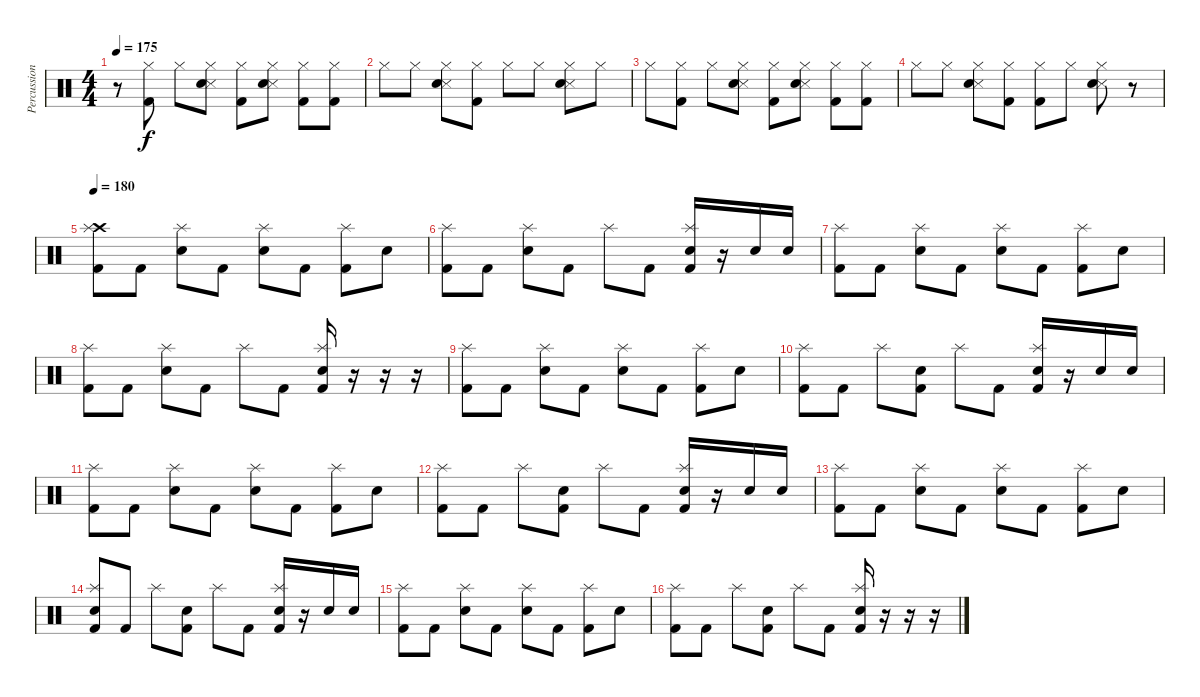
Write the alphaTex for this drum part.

\track ("Percussion" "Percussion") {instrument percussion}
\staff {score}
\articulation defaults
\ts (4 4)
\tempo 175
\clef neutral
\ks c
r.8{dy f} ("Hi-Hat (closed)" "Kick (hit) 2").8 "Hi-Hat (closed)".8 ("Hi-Hat (closed)" "Snare (side stick) 3" "Hand Clap (hit)").8 ("Hi-Hat (closed)" "Kick (hit) 2").8 ("Hi-Hat (closed)" "Snare (side stick) 3" "Hand Clap (hit)").8 ("Hi-Hat (closed)" "Kick (hit) 2").8 ("Hi-Hat (closed)" "Kick (hit) 2").8 |
"Hi-Hat (closed)".8 "Hi-Hat (closed)".8 ("Hi-Hat (closed)" "Snare (side stick) 3" "Hand Clap (hit)").8 ("Hi-Hat (closed)" "Kick (hit) 2").8 "Hi-Hat (closed)".8 "Hi-Hat (closed)".8 ("Hi-Hat (closed)" "Snare (side stick) 3" "Hand Clap (hit)").8 "Hi-Hat (closed)".8 |
"Hi-Hat (closed)".8 ("Hi-Hat (closed)" "Kick (hit) 2").8 "Hi-Hat (closed)".8 ("Hi-Hat (closed)" "Snare (side stick) 3" "Hand Clap (hit)").8 ("Hi-Hat (closed)" "Kick (hit) 2").8 ("Hi-Hat (closed)" "Snare (side stick) 3" "Hand Clap (hit)").8 ("Hi-Hat (closed)" "Kick (hit) 2").8 ("Hi-Hat (closed)" "Kick (hit) 2").8 |
"Hi-Hat (closed)".8 "Hi-Hat (closed)".8 ("Hi-Hat (closed)" "Snare (side stick) 3" "Hand Clap (hit)").8 ("Hi-Hat (closed)" "Kick (hit) 2").8 ("Hi-Hat (closed)" "Kick (hit) 2").8 "Hi-Hat (closed)".8 ("Hi-Hat (closed)" "Snare (side stick) 3" "Hand Clap (hit)").8 r.8 |
\tempo 180
("Crash high (hit)" "Splash (hit)" "Kick (hit) 2").8 "Kick (hit) 2".8 ("Splash (hit)" "Snare (hit) 2").8 "Kick (hit) 2".8 ("Splash (hit)" "Snare (hit) 2").8 "Kick (hit) 2".8 ("Splash (hit)" "Kick (hit) 2").8 "Snare (hit) 2".8 |
("Splash (hit)" "Kick (hit) 2").8 "Kick (hit) 2".8 ("Splash (hit)" "Snare (hit) 2").8 "Kick (hit) 2".8 "Splash (hit)".8 "Kick (hit) 2".8 ("Splash (hit)" "Snare (hit) 2" "Kick (hit) 2").16 r.16 "Snare (hit) 2".16 "Snare (hit) 2".16 |
("Splash (hit)" "Kick (hit) 2").8 "Kick (hit) 2".8 ("Splash (hit)" "Snare (hit) 2").8 "Kick (hit) 2".8 ("Splash (hit)" "Snare (hit) 2").8 "Kick (hit) 2".8 ("Splash (hit)" "Kick (hit) 2").8 "Snare (hit) 2".8 |
("Splash (hit)" "Kick (hit) 2").8 "Kick (hit) 2".8 ("Splash (hit)" "Snare (hit) 2").8 "Kick (hit) 2".8 "Splash (hit)".8 "Kick (hit) 2".8 ("Splash (hit)" "Snare (hit) 2" "Kick (hit) 2").16 r.16 r.16 r.16 |
("Splash (hit)" "Kick (hit) 2").8 "Kick (hit) 2".8 ("Splash (hit)" "Snare (hit) 2").8 "Kick (hit) 2".8 ("Splash (hit)" "Snare (hit) 2").8 "Kick (hit) 2".8 ("Splash (hit)" "Kick (hit) 2").8 "Snare (hit) 2".8 |
("Splash (hit)" "Kick (hit) 2").8 "Kick (hit) 2".8 "Splash (hit)".8 ("Snare (hit) 2" "Kick (hit) 2").8 "Splash (hit)".8 "Kick (hit) 2".8 ("Splash (hit)" "Snare (hit) 2" "Kick (hit) 2").16 r.16 "Snare (hit) 2".16 "Snare (hit) 2".16 |
("Splash (hit)" "Kick (hit) 2").8 "Kick (hit) 2".8 ("Splash (hit)" "Snare (hit) 2").8 "Kick (hit) 2".8 ("Splash (hit)" "Snare (hit) 2").8 "Kick (hit) 2".8 ("Splash (hit)" "Kick (hit) 2").8 "Snare (hit) 2".8 |
("Splash (hit)" "Kick (hit) 2").8 "Kick (hit) 2".8 "Splash (hit)".8 ("Snare (hit) 2" "Kick (hit) 2").8 "Splash (hit)".8 "Kick (hit) 2".8 ("Splash (hit)" "Snare (hit) 2" "Kick (hit) 2").16 r.16 "Snare (hit) 2".16 "Snare (hit) 2".16 |
("Splash (hit)" "Kick (hit) 2").8 "Kick (hit) 2".8 ("Splash (hit)" "Snare (hit) 2").8 "Kick (hit) 2".8 ("Splash (hit)" "Snare (hit) 2").8 "Kick (hit) 2".8 ("Splash (hit)" "Kick (hit) 2").8 "Snare (hit) 2".8 |
("Splash (hit)" "Snare (hit) 2" "Kick (hit) 2").8 "Kick (hit) 2".8 "Splash (hit)".8 ("Snare (hit) 2" "Kick (hit) 2").8 "Splash (hit)".8 "Kick (hit) 2".8 ("Splash (hit)" "Snare (hit) 2" "Kick (hit) 2").16 r.16 "Snare (hit) 2".16 "Snare (hit) 2".16 |
("Splash (hit)" "Kick (hit) 2").8 "Kick (hit) 2".8 ("Splash (hit)" "Snare (hit) 2").8 "Kick (hit) 2".8 ("Splash (hit)" "Snare (hit) 2").8 "Kick (hit) 2".8 ("Splash (hit)" "Kick (hit) 2").8 "Snare (hit) 2".8 |
("Splash (hit)" "Kick (hit) 2").8 "Kick (hit) 2".8 "Splash (hit)".8 ("Snare (hit) 2" "Kick (hit) 2").8 "Splash (hit)".8 "Kick (hit) 2".8 ("Splash (hit)" "Snare (hit) 2" "Kick (hit) 2").16 r.16 r.16 r.16
